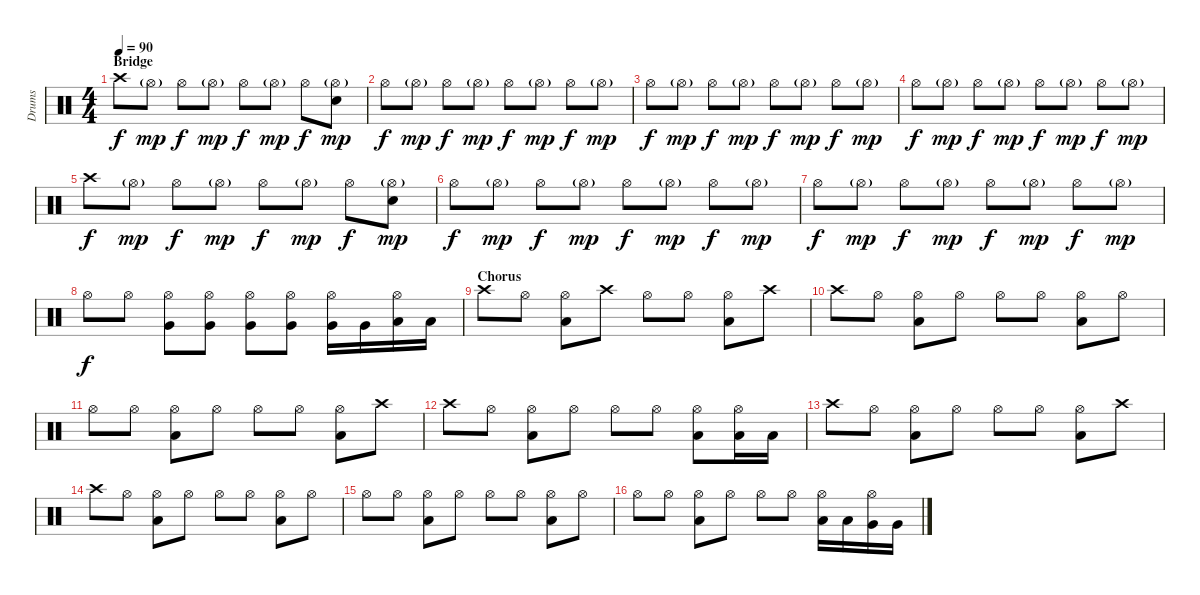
\track ("Drums" "Drums") {instrument percussion}
\staff {score}
\articulation defaults
\ts (4 4)
\section ("" "Bridge")
\tempo 90
\clef neutral
\ks c "Crash high (hit)".8{dy f} "Hi-Hat (open)"{g}.8{dy mp} "Hi-Hat (open)".8{dy f} "Hi-Hat (open)"{g}.8{dy mp} "Hi-Hat (open)".8{dy f} "Hi-Hat (open)"{g}.8{dy mp} "Hi-Hat (open)".8{dy f}
("Hi-Hat (open)"{g} "Snare (hit)"{t}).8{dy mp} |
"Hi-Hat (open)".8{dy f} "Hi-Hat (open)"{g}.8{dy mp} "Hi-Hat (open)".8{dy f} "Hi-Hat (open)"{g}.8{dy mp} "Hi-Hat (open)".8{dy f} "Hi-Hat (open)"{g}.8{dy mp} "Hi-Hat (open)".8{dy f} "Hi-Hat (open)"{g}.8{dy mp} |
"Hi-Hat (open)".8{dy f} "Hi-Hat (open)"{g}.8{dy mp} "Hi-Hat (open)".8{dy f} "Hi-Hat (open)"{g}.8{dy mp} "Hi-Hat (open)".8{dy f} "Hi-Hat (open)"{g}.8{dy mp} "Hi-Hat (open)".8{dy f} "Hi-Hat (open)"{g}.8{dy mp} |
"Hi-Hat (open)".8{dy f} "Hi-Hat (open)"{g}.8{dy mp} "Hi-Hat (open)".8{dy f} "Hi-Hat (open)"{g}.8{dy mp} "Hi-Hat (open)".8{dy f} "Hi-Hat (open)"{g}.8{dy mp} "Hi-Hat (open)".8{dy f} "Hi-Hat (open)"{g}.8{dy mp} |
"Crash high (hit)".8{dy f} "Hi-Hat (open)"{g}.8{dy mp} "Hi-Hat (open)".8{dy f} "Hi-Hat (open)"{g}.8{dy mp} "Hi-Hat (open)".8{dy f} "Hi-Hat (open)"{g}.8{dy mp} "Hi-Hat (open)".8{dy f} ("Hi-Hat (open)"{g} "Snare (hit)").8{dy mp} |
"Hi-Hat (open)".8{dy f} "Hi-Hat (open)"{g}.8{dy mp} "Hi-Hat (open)".8{dy f} "Hi-Hat (open)"{g}.8{dy mp} "Hi-Hat (open)".8{dy f} "Hi-Hat (open)"{g}.8{dy mp} "Hi-Hat (open)".8{dy f} "Hi-Hat (open)"{g}.8{dy mp} |
"Hi-Hat (open)".8{dy f} "Hi-Hat (open)"{g}.8{dy mp} "Hi-Hat (open)".8{dy f} "Hi-Hat (open)"{g}.8{dy mp} "Hi-Hat (open)".8{dy f} "Hi-Hat (open)"{g}.8{dy mp} "Hi-Hat (open)".8{dy f} "Hi-Hat (open)"{g}.8{dy mp} |
"Hi-Hat (open)".8{dy f} "Hi-Hat (open)".8 ("Hi-Hat (open)" "Very Low Tom (hit)").8 ("Hi-Hat (open)" "Very Low Tom (hit)").8 ("Hi-Hat (open)" "Very Low Tom (hit)").8 ("Hi-Hat (open)" "Very Low Tom (hit)").8 ("Hi-Hat (open)" "Very Low Tom (hit)").16 "Very Low Tom (hit)".16 ("Hi-Hat (open)" "Low Tom (hit)").16 "Low Tom (hit)".16 |
\section ("" "Chorus")
"Crash high (hit)".8{volume 16} "Hi-Hat (open)".8 ("Hi-Hat (open)" "Low Floor Tom (hit)").8 "Crash high (hit)".8 "Hi-Hat (open)".8 "Hi-Hat (open)".8 ("Hi-Hat (open)" "Low Floor Tom (hit)").8 "Crash high (hit)".8 |
"Crash high (hit)".8 "Hi-Hat (open)".8 ("Hi-Hat (open)" "Low Floor Tom (hit)").8 "Hi-Hat (open)".8 "Hi-Hat (open)".8 "Hi-Hat (open)".8 ("Hi-Hat (open)" "Low Floor Tom (hit)").8 "Hi-Hat (open)".8 |
"Hi-Hat (open)".8 "Hi-Hat (open)".8 ("Hi-Hat (open)" "Low Floor Tom (hit)").8 "Hi-Hat (open)".8 "Hi-Hat (open)".8 "Hi-Hat (open)".8 ("Hi-Hat (open)" "Low Floor Tom (hit)").8 "Crash high (hit)".8 |
"Crash high (hit)".8 "Hi-Hat (open)".8 ("Hi-Hat (open)" "Low Floor Tom (hit)").8 "Hi-Hat (open)".8 "Hi-Hat (open)".8 "Hi-Hat (open)".8 ("Hi-Hat (open)" "Low Floor Tom (hit)").8 ("Hi-Hat (open)" "Low Floor Tom (hit)").16 "Low Floor Tom (hit)".16 |
"Crash high (hit)".8 "Hi-Hat (open)".8 ("Hi-Hat (open)" "Low Floor Tom (hit)").8 "Hi-Hat (open)".8 "Hi-Hat (open)".8 "Hi-Hat (open)".8 ("Hi-Hat (open)" "Low Floor Tom (hit)").8 "Crash high (hit)".8 |
"Crash high (hit)".8 "Hi-Hat (open)".8 ("Hi-Hat (open)" "Low Floor Tom (hit)").8 "Hi-Hat (open)".8 "Hi-Hat (open)".8 "Hi-Hat (open)".8 ("Hi-Hat (open)" "Low Floor Tom (hit)").8 "Hi-Hat (open)".8 |
"Hi-Hat (open)".8 "Hi-Hat (open)".8 ("Hi-Hat (open)" "Low Floor Tom (hit)").8 "Hi-Hat (open)".8 "Hi-Hat (open)".8 "Hi-Hat (open)".8 ("Hi-Hat (open)" "Low Floor Tom (hit)").8 "Hi-Hat (open)".8 |
"Hi-Hat (open)".8 "Hi-Hat (open)".8 ("Hi-Hat (open)" "Low Floor Tom (hit)").8 "Hi-Hat (open)".8 "Hi-Hat (open)".8 "Hi-Hat (open)".8 ("Hi-Hat (open)" "Low Floor Tom (hit)").16 "Low Floor Tom (hit)".16 ("Hi-Hat (open)" "Very Low Tom (hit)").16 "Very Low Tom (hit)".16
